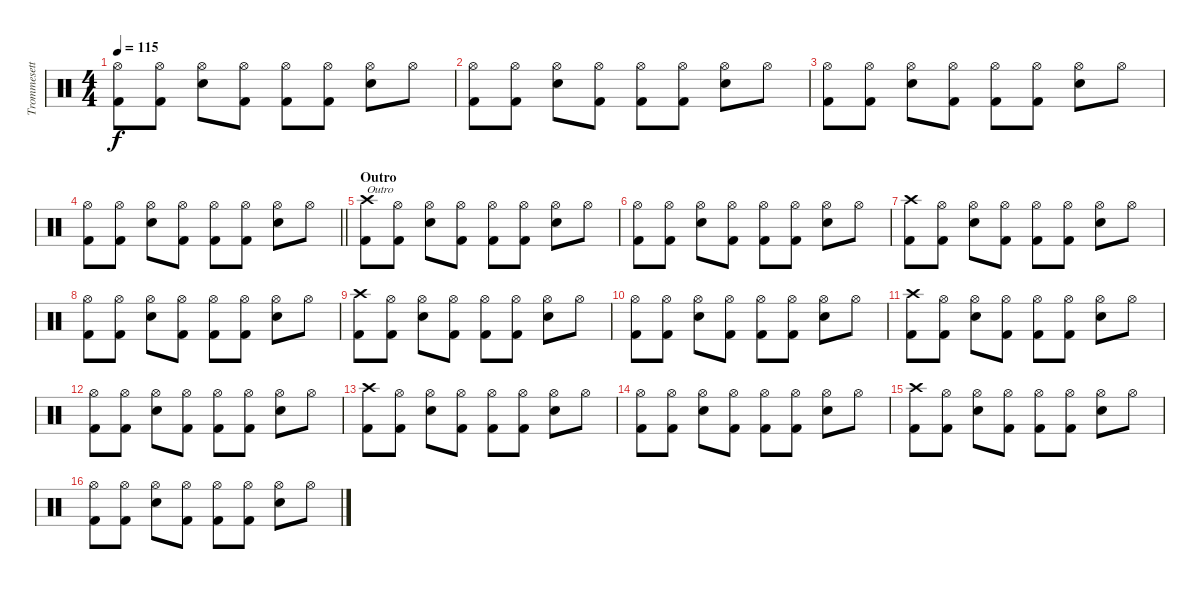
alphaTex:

\track ("Trommesett" "Trommesett") {instrument percussion}
\staff {score}
\articulation defaults
\ts (4 4)
\tempo 115
\clef neutral
\ks c
("Hi-Hat (open)" "Kick (hit) 2").8{dy f} ("Hi-Hat (open)" "Kick (hit) 2").8 ("Hi-Hat (open)" "Electric Snare (hit)").8 ("Hi-Hat (open)" "Kick (hit) 2").8 ("Hi-Hat (open)" "Kick (hit) 2").8 ("Hi-Hat (open)" "Kick (hit) 2").8 ("Hi-Hat (open)" "Electric Snare (hit)").8 "Hi-Hat (open)".8 |
("Hi-Hat (open)" "Kick (hit) 2").8 ("Hi-Hat (open)" "Kick (hit) 2").8 ("Hi-Hat (open)" "Electric Snare (hit)").8 ("Hi-Hat (open)" "Kick (hit) 2").8 ("Hi-Hat (open)" "Kick (hit) 2").8 ("Hi-Hat (open)" "Kick (hit) 2").8 ("Hi-Hat (open)" "Electric Snare (hit)").8 "Hi-Hat (open)".8 |
("Hi-Hat (open)" "Kick (hit) 2").8 ("Hi-Hat (open)" "Kick (hit) 2").8 ("Hi-Hat (open)" "Electric Snare (hit)").8 ("Hi-Hat (open)" "Kick (hit) 2").8 ("Hi-Hat (open)" "Kick (hit) 2").8 ("Hi-Hat (open)" "Kick (hit) 2").8 ("Hi-Hat (open)" "Electric Snare (hit)").8 "Hi-Hat (open)".8 |
\barLineRight lightlight
("Hi-Hat (open)" "Kick (hit) 2").8 ("Hi-Hat (open)" "Kick (hit) 2").8 ("Hi-Hat (open)" "Electric Snare (hit)").8 ("Hi-Hat (open)" "Kick (hit) 2").8 ("Hi-Hat (open)" "Kick (hit) 2").8 ("Hi-Hat (open)" "Kick (hit) 2").8 ("Hi-Hat (open)" "Electric Snare (hit)").8 "Hi-Hat (open)".8 |
\section ("" "Outro")
("Crash high (hit)" "Kick (hit) 2").8{txt "Outro"} ("Hi-Hat (open)" "Kick (hit) 2").8 ("Hi-Hat (open)" "Electric Snare (hit)").8 ("Hi-Hat (open)" "Kick (hit) 2").8 ("Hi-Hat (open)" "Kick (hit) 2").8 ("Hi-Hat (open)" "Kick (hit) 2").8 ("Hi-Hat (open)" "Electric Snare (hit)").8 "Hi-Hat (open)".8 |
("Hi-Hat (open)" "Kick (hit) 2").8 ("Hi-Hat (open)" "Kick (hit) 2").8 ("Hi-Hat (open)" "Electric Snare (hit)").8 ("Hi-Hat (open)" "Kick (hit) 2").8 ("Hi-Hat (open)" "Kick (hit) 2").8 ("Hi-Hat (open)" "Kick (hit) 2").8 ("Hi-Hat (open)" "Electric Snare (hit)").8 "Hi-Hat (open)".8 |
("Crash high (hit)" "Kick (hit) 2").8 ("Hi-Hat (open)" "Kick (hit) 2").8 ("Hi-Hat (open)" "Electric Snare (hit)").8 ("Hi-Hat (open)" "Kick (hit) 2").8 ("Hi-Hat (open)" "Kick (hit) 2").8 ("Hi-Hat (open)" "Kick (hit) 2").8 ("Hi-Hat (open)" "Electric Snare (hit)").8 "Hi-Hat (open)".8 |
("Hi-Hat (open)" "Kick (hit) 2").8 ("Hi-Hat (open)" "Kick (hit) 2").8 ("Hi-Hat (open)" "Electric Snare (hit)").8 ("Hi-Hat (open)" "Kick (hit) 2").8 ("Hi-Hat (open)" "Kick (hit) 2").8 ("Hi-Hat (open)" "Kick (hit) 2").8 ("Hi-Hat (open)" "Electric Snare (hit)").8 "Hi-Hat (open)".8 |
("Crash high (hit)" "Kick (hit) 2").8 ("Hi-Hat (open)" "Kick (hit) 2").8 ("Hi-Hat (open)" "Electric Snare (hit)").8 ("Hi-Hat (open)" "Kick (hit) 2").8 ("Hi-Hat (open)" "Kick (hit) 2").8 ("Hi-Hat (open)" "Kick (hit) 2").8 ("Hi-Hat (open)" "Electric Snare (hit)").8 "Hi-Hat (open)".8 |
("Hi-Hat (open)" "Kick (hit) 2").8 ("Hi-Hat (open)" "Kick (hit) 2").8 ("Hi-Hat (open)" "Electric Snare (hit)").8 ("Hi-Hat (open)" "Kick (hit) 2").8 ("Hi-Hat (open)" "Kick (hit) 2").8 ("Hi-Hat (open)" "Kick (hit) 2").8 ("Hi-Hat (open)" "Electric Snare (hit)").8 "Hi-Hat (open)".8 |
("Crash high (hit)" "Kick (hit) 2").8 ("Hi-Hat (open)" "Kick (hit) 2").8 ("Hi-Hat (open)" "Electric Snare (hit)").8 ("Hi-Hat (open)" "Kick (hit) 2").8 ("Hi-Hat (open)" "Kick (hit) 2").8 ("Hi-Hat (open)" "Kick (hit) 2").8 ("Hi-Hat (open)" "Electric Snare (hit)").8 "Hi-Hat (open)".8 |
("Hi-Hat (open)" "Kick (hit) 2").8 ("Hi-Hat (open)" "Kick (hit) 2").8 ("Hi-Hat (open)" "Electric Snare (hit)").8 ("Hi-Hat (open)" "Kick (hit) 2").8 ("Hi-Hat (open)" "Kick (hit) 2").8 ("Hi-Hat (open)" "Kick (hit) 2").8 ("Hi-Hat (open)" "Electric Snare (hit)").8 "Hi-Hat (open)".8 |
("Crash high (hit)" "Kick (hit) 2").8 ("Hi-Hat (open)" "Kick (hit) 2").8 ("Hi-Hat (open)" "Electric Snare (hit)").8 ("Hi-Hat (open)" "Kick (hit) 2").8 ("Hi-Hat (open)" "Kick (hit) 2").8 ("Hi-Hat (open)" "Kick (hit) 2").8 ("Hi-Hat (open)" "Electric Snare (hit)").8 "Hi-Hat (open)".8 |
("Hi-Hat (open)" "Kick (hit) 2").8 ("Hi-Hat (open)" "Kick (hit) 2").8 ("Hi-Hat (open)" "Electric Snare (hit)").8 ("Hi-Hat (open)" "Kick (hit) 2").8 ("Hi-Hat (open)" "Kick (hit) 2").8 ("Hi-Hat (open)" "Kick (hit) 2").8 ("Hi-Hat (open)" "Electric Snare (hit)").8 "Hi-Hat (open)".8 |
("Crash high (hit)" "Kick (hit) 2").8 ("Hi-Hat (open)" "Kick (hit) 2").8 ("Hi-Hat (open)" "Electric Snare (hit)").8 ("Hi-Hat (open)" "Kick (hit) 2").8 ("Hi-Hat (open)" "Kick (hit) 2").8 ("Hi-Hat (open)" "Kick (hit) 2").8 ("Hi-Hat (open)" "Electric Snare (hit)").8 "Hi-Hat (open)".8 |
("Hi-Hat (open)" "Kick (hit) 2").8 ("Hi-Hat (open)" "Kick (hit) 2").8 ("Hi-Hat (open)" "Electric Snare (hit)").8 ("Hi-Hat (open)" "Kick (hit) 2").8 ("Hi-Hat (open)" "Kick (hit) 2").8 ("Hi-Hat (open)" "Kick (hit) 2").8 ("Hi-Hat (open)" "Electric Snare (hit)").8 "Hi-Hat (open)".8
